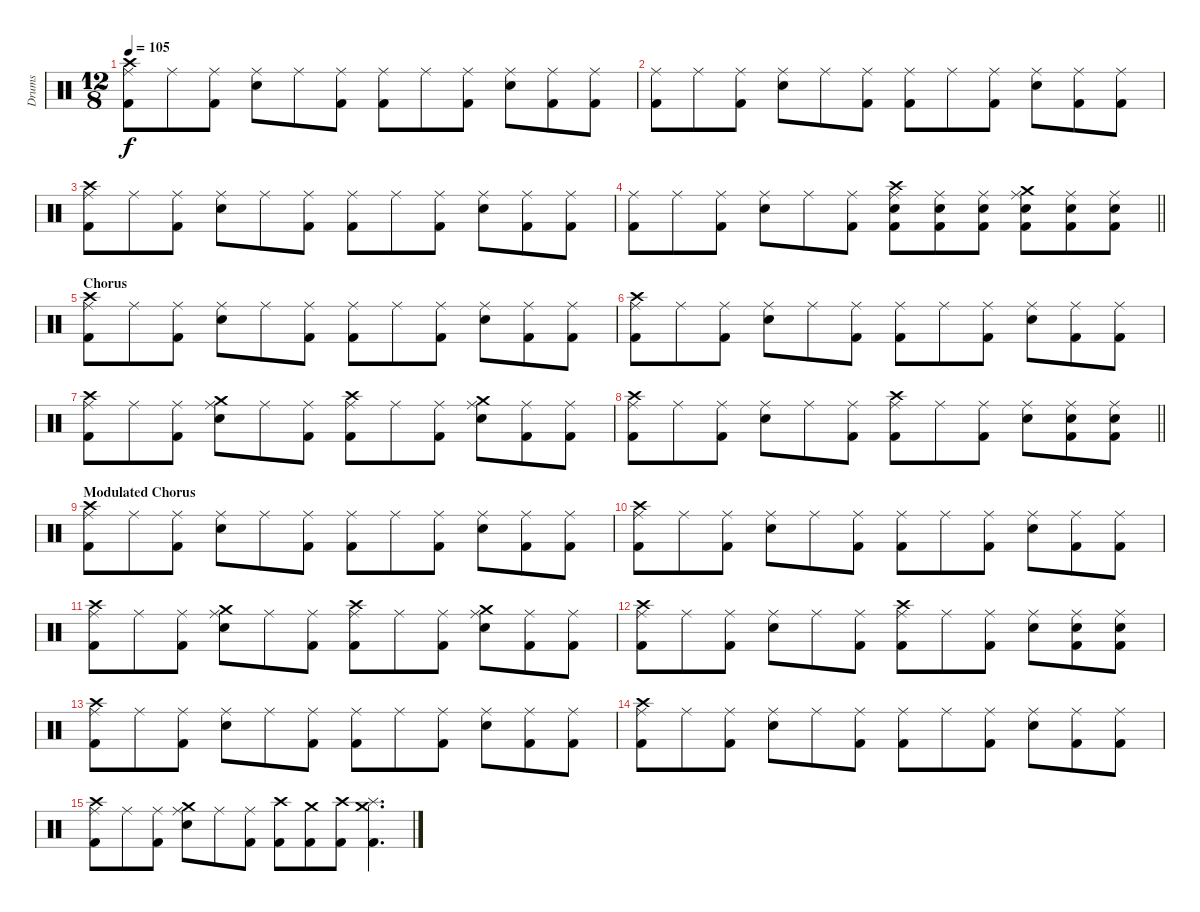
\track ("Drums" "Drums") {instrument percussion}
\staff {score}
\articulation defaults
\ts (12 8)
\tempo 105
\clef neutral
\ks c
("Crash high (hit)" "Ride (middle)" "Kick (hit) 2").8{dy f} "Ride (middle)".8 ("Ride (middle)" "Kick (hit) 2").8 ("Ride (middle)" "Snare (hit) 2").8 "Ride (middle)".8 ("Ride (middle)" "Kick (hit) 2").8 ("Ride (middle)" "Kick (hit) 2").8 "Ride (middle)".8 ("Ride (middle)" "Kick (hit) 2").8 ("Ride (middle)" "Snare (hit) 2").8 ("Ride (middle)" "Kick (hit) 2").8 ("Ride (middle)" "Kick (hit) 2").8 |
("Ride (middle)" "Kick (hit) 2").8 "Ride (middle)".8 ("Ride (middle)" "Kick (hit) 2").8 ("Ride (middle)" "Snare (hit) 2").8 "Ride (middle)".8 ("Ride (middle)" "Kick (hit) 2").8 ("Ride (middle)" "Kick (hit) 2").8 "Ride (middle)".8 ("Ride (middle)" "Kick (hit) 2").8 ("Ride (middle)" "Snare (hit) 2").8 ("Ride (middle)" "Kick (hit) 2").8 ("Ride (middle)" "Kick (hit) 2").8 |
("Crash high (hit)" "Ride (middle)" "Kick (hit) 2").8 "Ride (middle)".8 ("Ride (middle)" "Kick (hit) 2").8 ("Ride (middle)" "Snare (hit) 2").8 "Ride (middle)".8 ("Ride (middle)" "Kick (hit) 2").8 ("Ride (middle)" "Kick (hit) 2").8 "Ride (middle)".8 ("Ride (middle)" "Kick (hit) 2").8 ("Ride (middle)" "Snare (hit) 2").8 ("Ride (middle)" "Kick (hit) 2").8 ("Ride (middle)" "Kick (hit) 2").8 |
\barLineRight lightlight
("Ride (middle)" "Kick (hit) 2").8 "Ride (middle)".8 ("Ride (middle)" "Kick (hit) 2").8 ("Ride (middle)" "Snare (hit) 2").8 "Ride (middle)".8 ("Ride (middle)" "Kick (hit) 2").8 ("Crash high (hit)" "Ride (middle)" "Snare (hit) 2" "Kick (hit) 2").8 ("Ride (middle)" "Snare (hit) 2" "Kick (hit) 2").8 ("Ride (middle)" "Snare (hit) 2" "Kick (hit) 2").8 ("Crash medium (hit)" "Ride (middle)" "Snare (hit) 2" "Kick (hit) 2").8 ("Ride (middle)" "Snare (hit) 2" "Kick (hit) 2").8 ("Ride (middle)" "Snare (hit) 2" "Kick (hit) 2").8 |
\section ("" "Chorus")
("Crash high (hit)" "Ride (middle)" "Kick (hit) 2").8 "Ride (middle)".8 ("Ride (middle)" "Kick (hit) 2").8 ("Ride (middle)" "Snare (hit) 2").8 "Ride (middle)".8 ("Ride (middle)" "Kick (hit) 2").8 ("Ride (middle)" "Kick (hit) 2").8 "Ride (middle)".8 ("Ride (middle)" "Kick (hit) 2").8 ("Ride (middle)" "Snare (hit) 2").8 ("Ride (middle)" "Kick (hit) 2").8 ("Ride (middle)" "Kick (hit) 2").8 |
("Crash high (hit)" "Ride (middle)" "Kick (hit) 2").8 "Ride (middle)".8 ("Ride (middle)" "Kick (hit) 2").8 ("Ride (middle)" "Snare (hit) 2").8 "Ride (middle)".8 ("Ride (middle)" "Kick (hit) 2").8 ("Ride (middle)" "Kick (hit) 2").8 "Ride (middle)".8 ("Ride (middle)" "Kick (hit) 2").8 ("Ride (middle)" "Snare (hit) 2").8 ("Ride (middle)" "Kick (hit) 2").8 ("Ride (middle)" "Kick (hit) 2").8 |
("Crash high (hit)" "Ride (middle)" "Kick (hit) 2").8 "Ride (middle)".8 ("Ride (middle)" "Kick (hit) 2").8 ("Crash medium (hit)" "Ride (middle)" "Snare (hit) 2").8 "Ride (middle)".8 ("Ride (middle)" "Kick (hit) 2").8 ("Crash high (hit)" "Ride (middle)" "Kick (hit) 2").8 "Ride (middle)".8 ("Ride (middle)" "Kick (hit) 2").8 ("Crash medium (hit)" "Ride (middle)" "Snare (hit) 2").8 ("Ride (middle)" "Kick (hit) 2").8 ("Ride (middle)" "Kick (hit) 2").8 |
\barLineRight lightlight
("Crash high (hit)" "Ride (middle)" "Kick (hit) 2").8 "Ride (middle)".8 ("Ride (middle)" "Kick (hit) 2").8 ("Ride (middle)" "Snare (hit) 2").8 "Ride (middle)".8 ("Ride (middle)" "Kick (hit) 2").8 ("Crash high (hit)" "Ride (middle)" "Kick (hit) 2").8 "Ride (middle)".8 ("Ride (middle)" "Kick (hit) 2").8 ("Ride (middle)" "Snare (hit) 2").8 ("Ride (middle)" "Snare (hit) 2" "Kick (hit) 2").8 ("Ride (middle)" "Snare (hit) 2" "Kick (hit) 2").8 |
\section ("" "Modulated Chorus")
("Crash high (hit)" "Ride (middle)" "Kick (hit) 2").8 "Ride (middle)".8 ("Ride (middle)" "Kick (hit) 2").8 ("Ride (middle)" "Snare (hit) 2").8 "Ride (middle)".8 ("Ride (middle)" "Kick (hit) 2").8 ("Ride (middle)" "Kick (hit) 2").8 "Ride (middle)".8 ("Ride (middle)" "Kick (hit) 2").8 ("Ride (middle)" "Snare (hit) 2").8 ("Ride (middle)" "Kick (hit) 2").8 ("Ride (middle)" "Kick (hit) 2").8 |
("Crash high (hit)" "Ride (middle)" "Kick (hit) 2").8 "Ride (middle)".8 ("Ride (middle)" "Kick (hit) 2").8 ("Ride (middle)" "Snare (hit) 2").8 "Ride (middle)".8 ("Ride (middle)" "Kick (hit) 2").8 ("Ride (middle)" "Kick (hit) 2").8 "Ride (middle)".8 ("Ride (middle)" "Kick (hit) 2").8 ("Ride (middle)" "Snare (hit) 2").8 ("Ride (middle)" "Kick (hit) 2").8 ("Ride (middle)" "Kick (hit) 2").8 |
("Crash high (hit)" "Ride (middle)" "Kick (hit) 2").8 "Ride (middle)".8 ("Ride (middle)" "Kick (hit) 2").8 ("Crash medium (hit)" "Ride (middle)" "Snare (hit) 2").8 "Ride (middle)".8 ("Ride (middle)" "Kick (hit) 2").8 ("Crash high (hit)" "Ride (middle)" "Kick (hit) 2").8 "Ride (middle)".8 ("Ride (middle)" "Kick (hit) 2").8 ("Crash medium (hit)" "Ride (middle)" "Snare (hit) 2").8 ("Ride (middle)" "Kick (hit) 2").8 ("Ride (middle)" "Kick (hit) 2").8 |
("Crash high (hit)" "Ride (middle)" "Kick (hit) 2").8 "Ride (middle)".8 ("Ride (middle)" "Kick (hit) 2").8 ("Ride (middle)" "Snare (hit) 2").8 "Ride (middle)".8 ("Ride (middle)" "Kick (hit) 2").8 ("Crash high (hit)" "Ride (middle)" "Kick (hit) 2").8 "Ride (middle)".8 ("Ride (middle)" "Kick (hit) 2").8 ("Ride (middle)" "Snare (hit) 2").8 ("Ride (middle)" "Snare (hit) 2" "Kick (hit) 2").8 ("Ride (middle)" "Snare (hit) 2" "Kick (hit) 2").8 |
("Crash high (hit)" "Ride (middle)" "Kick (hit) 2").8 "Ride (middle)".8 ("Ride (middle)" "Kick (hit) 2").8 ("Ride (middle)" "Snare (hit) 2").8 "Ride (middle)".8 ("Ride (middle)" "Kick (hit) 2").8 ("Ride (middle)" "Kick (hit) 2").8 "Ride (middle)".8 ("Ride (middle)" "Kick (hit) 2").8 ("Ride (middle)" "Snare (hit) 2").8 ("Ride (middle)" "Kick (hit) 2").8 ("Ride (middle)" "Kick (hit) 2").8 |
("Crash high (hit)" "Ride (middle)" "Kick (hit) 2").8 "Ride (middle)".8 ("Ride (middle)" "Kick (hit) 2").8 ("Ride (middle)" "Snare (hit) 2").8 "Ride (middle)".8 ("Ride (middle)" "Kick (hit) 2").8 ("Ride (middle)" "Kick (hit) 2").8 "Ride (middle)".8 ("Ride (middle)" "Kick (hit) 2").8 ("Ride (middle)" "Snare (hit) 2").8 ("Ride (middle)" "Kick (hit) 2").8 ("Ride (middle)" "Kick (hit) 2").8 |
("Crash high (hit)" "Ride (middle)" "Kick (hit) 2").8 "Ride (middle)".8 ("Ride (middle)" "Kick (hit) 2").8 ("Crash medium (hit)" "Ride (middle)" "Snare (hit) 2").8 "Ride (middle)".8 ("Ride (middle)" "Kick (hit) 2").8 ("Crash high (hit)" "Kick (hit) 2").8 ("Crash medium (hit)" "Kick (hit) 2").8 ("Crash high (hit)" "Kick (hit) 2").8 ("Crash medium (hit)" "Splash (hit)" "Kick (hit) 2").4{d}
